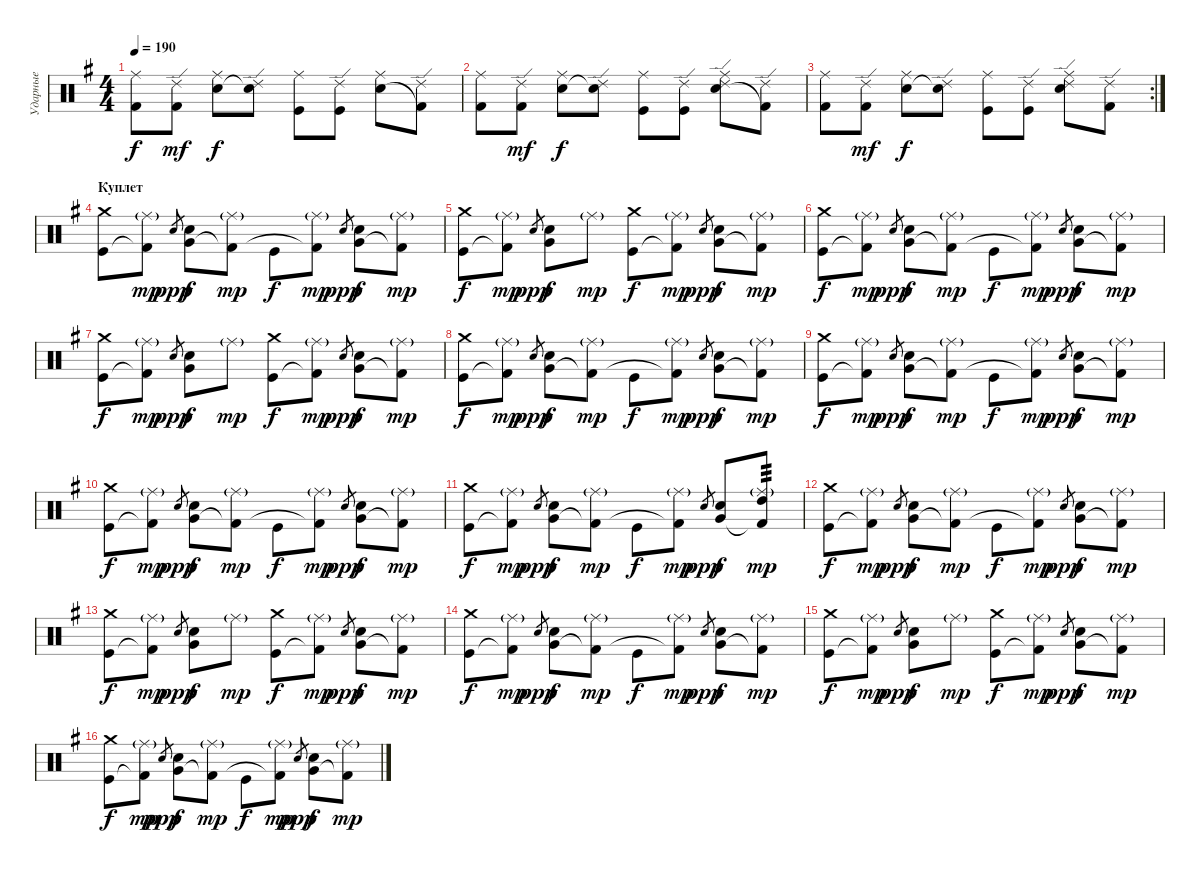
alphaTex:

\track ("Ударные" "Ударные") {instrument percussion}
\staff {score}
\articulation defaults
\ts (4 4)
\tempo 190
\clef neutral
\ks g
("Kick (hit) 2" "Ride (middle)").8{dy f} ("Kick (hit) 2" "Ride (edge) 2").8{dy mf} ("Snare (hit) 2" "Ride (middle)").8{dy f} ("Snare (hit)"{t} "Ride (edge) 2").8 ("Kick (hit)" "Ride (middle)").8 ("Kick (hit)" "Ride (edge) 2").8 ("Snare (hit) 2" "Ride (middle)").8 ("Kick (hit) 2"{t} "Ride (edge) 2").8 |
("Kick (hit) 2" "Ride (middle)").8 ("Kick (hit) 2" "Ride (edge) 2").8{dy mf} ("Snare (hit) 2" "Ride (middle)").8{dy f} ("Snare (hit)"{t} "Ride (edge) 2").8 ("Kick (hit)" "Ride (middle)").8 ("Kick (hit)" "Ride (edge) 2").8 ("Snare (hit) 2" "Ride (edge) 2" "Ride (middle)").8 ("Kick (hit) 2"{t} "Ride (edge) 2").8 |
\rc 2
("Kick (hit) 2" "Ride (middle)").8 ("Kick (hit) 2" "Ride (edge) 2").8{dy mf} ("Snare (hit) 2" "Ride (middle)").8{dy f} ("Snare (hit)"{t} "Ride (edge) 2").8 ("Kick (hit)" "Ride (middle)").8 ("Kick (hit)" "Ride (edge) 2").8 ("Snare (hit) 2" "Ride (edge) 2" "Ride (middle)").8 ("Kick (hit) 2" "Ride (edge) 2").8 |
\section ("" "Куплет")
("Crash medium (hit)" "Kick (hit)").8 ("Ride (middle)"{g} "Kick (hit) 2"{t}).8{dy mp} "Electric Snare (hit)".8{gr dy ppp} ("Snare (hit) 2" "Very Low Tom (hit)").8{dy f} ("Ride (middle)"{g} "Kick (hit) 2"{t}).8{dy mp} "Kick (hit)".8{dy f} ("Ride (middle)"{g} "Kick (hit) 2"{t}).8{dy mp} "Electric Snare (hit)".8{gr dy ppp} ("Snare (hit) 2" "Very Low Tom (hit)").8{dy f} ("Ride (middle)"{g} "Kick (hit) 2"{t}).8{dy mp} |
("Crash medium (hit)" "Kick (hit)").8{dy f} ("Ride (middle)"{g} "Kick (hit) 2"{t}).8{dy mp} "Electric Snare (hit)".8{gr dy ppp} ("Snare (hit) 2" "Very Low Tom (hit)").8{dy f} "Ride (middle)"{g}.8{dy mp} ("Crash medium (hit)" "Kick (hit)").8{dy f} ("Ride (middle)"{g} "Kick (hit) 2"{t}).8{dy mp} "Electric Snare (hit)".8{gr dy ppp} ("Snare (hit) 2" "Very Low Tom (hit)").8{dy f} ("Ride (middle)"{g} "Kick (hit) 2"{t}).8{dy mp} |
("Crash medium (hit)" "Kick (hit)").8{dy f} ("Ride (middle)"{g} "Kick (hit) 2"{t}).8{dy mp} "Electric Snare (hit)".8{gr dy ppp} ("Snare (hit) 2" "Very Low Tom (hit)").8{dy f} ("Ride (middle)"{g} "Kick (hit) 2"{t}).8{dy mp} "Kick (hit)".8{dy f} ("Ride (middle)"{g} "Kick (hit) 2"{t}).8{dy mp} "Electric Snare (hit)".8{gr dy ppp} ("Snare (hit) 2" "Very Low Tom (hit)").8{dy f} ("Ride (middle)"{g} "Kick (hit) 2"{t}).8{dy mp} |
("Crash medium (hit)" "Kick (hit)").8{dy f} ("Ride (middle)"{g} "Kick (hit) 2"{t}).8{dy mp} "Electric Snare (hit)".8{gr dy ppp} ("Snare (hit) 2" "Very Low Tom (hit)").8{dy f} "Ride (middle)"{g}.8{dy mp} ("Crash medium (hit)" "Kick (hit)").8{dy f} ("Ride (middle)"{g} "Kick (hit) 2"{t}).8{dy mp} "Electric Snare (hit)".8{gr dy ppp} ("Snare (hit) 2" "Very Low Tom (hit)").8{dy f} ("Ride (middle)"{g} "Kick (hit) 2"{t}).8{dy mp} |
("Crash medium (hit)" "Kick (hit)").8{dy f} ("Ride (middle)"{g} "Kick (hit) 2"{t}).8{dy mp} "Electric Snare (hit)".8{gr dy ppp} ("Snare (hit) 2" "Very Low Tom (hit)").8{dy f} ("Ride (middle)"{g} "Kick (hit) 2"{t}).8{dy mp} "Kick (hit)".8{dy f} ("Ride (middle)"{g} "Kick (hit) 2"{t}).8{dy mp} "Electric Snare (hit)".8{gr dy ppp} ("Snare (hit) 2" "Very Low Tom (hit)").8{dy f} ("Ride (middle)"{g} "Kick (hit) 2"{t}).8{dy mp} |
("Crash medium (hit)" "Kick (hit)").8{dy f} ("Ride (middle)"{g} "Kick (hit) 2"{t}).8{dy mp} "Electric Snare (hit)".8{gr dy ppp} ("Snare (hit) 2" "Very Low Tom (hit)").8{dy f} ("Ride (middle)"{g} "Kick (hit) 2"{t}).8{dy mp} "Kick (hit)".8{dy f} ("Ride (middle)"{g} "Kick (hit) 2"{t}).8{dy mp} "Electric Snare (hit)".8{gr dy ppp} ("Snare (hit) 2" "Very Low Tom (hit)").8{dy f} ("Ride (middle)"{g} "Kick (hit) 2"{t}).8{dy mp} |
("Crash medium (hit)" "Kick (hit)").8{dy f} ("Ride (middle)"{g} "Kick (hit) 2"{t}).8{dy mp} "Electric Snare (hit)".8{gr dy ppp} ("Snare (hit) 2" "Very Low Tom (hit)").8{dy f} ("Ride (middle)"{g} "Kick (hit) 2"{t}).8{dy mp} "Kick (hit)".8{dy f} ("Ride (middle)"{g} "Kick (hit) 2"{t}).8{dy mp} "Electric Snare (hit)".8{gr dy ppp} ("Snare (hit) 2" "Very Low Tom (hit)").8{dy f} ("Ride (middle)"{g} "Kick (hit) 2"{t}).8{dy mp} |
("Crash medium (hit)" "Kick (hit)").8{dy f} ("Ride (middle)"{g} "Kick (hit) 2"{t}).8{dy mp} "Electric Snare (hit)".8{gr dy ppp} ("Snare (hit) 2" "Very Low Tom (hit)").8{dy f} ("Ride (middle)"{g} "Kick (hit) 2"{t}).8{dy mp} "Kick (hit)".8{dy f} ("Ride (middle)"{g} "Kick (hit) 2"{t}).8{dy mp} "Electric Snare (hit)".8{gr dy ppp} ("Snare (hit) 2" "Very Low Tom (hit)").8{dy f} ("Ride (middle)"{g} "Kick (hit) 2"{t} "High Tom (hit)").8{tp 3 dy mp} |
("Crash medium (hit)" "Kick (hit)").8{dy f} ("Ride (middle)"{g} "Kick (hit) 2"{t}).8{dy mp} "Electric Snare (hit)".8{gr dy ppp} ("Snare (hit) 2" "Very Low Tom (hit)").8{dy f} ("Ride (middle)"{g} "Kick (hit) 2"{t}).8{dy mp} "Kick (hit)".8{dy f} ("Ride (middle)"{g} "Kick (hit) 2"{t}).8{dy mp} "Electric Snare (hit)".8{gr dy ppp} ("Snare (hit) 2" "Very Low Tom (hit)").8{dy f} ("Ride (middle)"{g} "Kick (hit) 2"{t}).8{dy mp} |
("Crash medium (hit)" "Kick (hit)").8{dy f} ("Ride (middle)"{g} "Kick (hit) 2"{t}).8{dy mp} "Electric Snare (hit)".8{gr dy ppp} ("Snare (hit) 2" "Very Low Tom (hit)").8{dy f} "Ride (middle)"{g}.8{dy mp} ("Crash medium (hit)" "Kick (hit)").8{dy f} ("Ride (middle)"{g} "Kick (hit) 2"{t}).8{dy mp} "Electric Snare (hit)".8{gr dy ppp} ("Snare (hit) 2" "Very Low Tom (hit)").8{dy f} ("Ride (middle)"{g} "Kick (hit) 2"{t}).8{dy mp} |
("Crash medium (hit)" "Kick (hit)").8{dy f} ("Ride (middle)"{g} "Kick (hit) 2"{t}).8{dy mp} "Electric Snare (hit)".8{gr dy ppp} ("Snare (hit) 2" "Very Low Tom (hit)").8{dy f} ("Ride (middle)"{g} "Kick (hit) 2"{t}).8{dy mp} "Kick (hit)".8{dy f} ("Ride (middle)"{g} "Kick (hit) 2"{t}).8{dy mp} "Electric Snare (hit)".8{gr dy ppp} ("Snare (hit) 2" "Very Low Tom (hit)").8{dy f} ("Ride (middle)"{g} "Kick (hit) 2"{t}).8{dy mp} |
("Crash medium (hit)" "Kick (hit)").8{dy f} ("Ride (middle)"{g} "Kick (hit) 2"{t}).8{dy mp} "Electric Snare (hit)".8{gr dy ppp} ("Snare (hit) 2" "Very Low Tom (hit)").8{dy f} "Ride (middle)"{g}.8{dy mp} ("Crash medium (hit)" "Kick (hit)").8{dy f} ("Ride (middle)"{g} "Kick (hit) 2"{t}).8{dy mp} "Electric Snare (hit)".8{gr dy ppp} ("Snare (hit) 2" "Very Low Tom (hit)").8{dy f} ("Ride (middle)"{g} "Kick (hit) 2"{t}).8{dy mp} |
("Crash medium (hit)" "Kick (hit)").8{dy f} ("Ride (middle)"{g} "Kick (hit) 2"{t}).8{dy mp} "Electric Snare (hit)".8{gr dy ppp} ("Snare (hit) 2" "Very Low Tom (hit)").8{dy f} ("Ride (middle)"{g} "Kick (hit) 2"{t}).8{dy mp} "Kick (hit)".8{dy f} ("Ride (middle)"{g} "Kick (hit) 2"{t}).8{dy mp} "Electric Snare (hit)".8{gr dy ppp} ("Snare (hit) 2" "Very Low Tom (hit)").8{dy f} ("Ride (middle)"{g} "Kick (hit) 2"{t}).8{dy mp}
